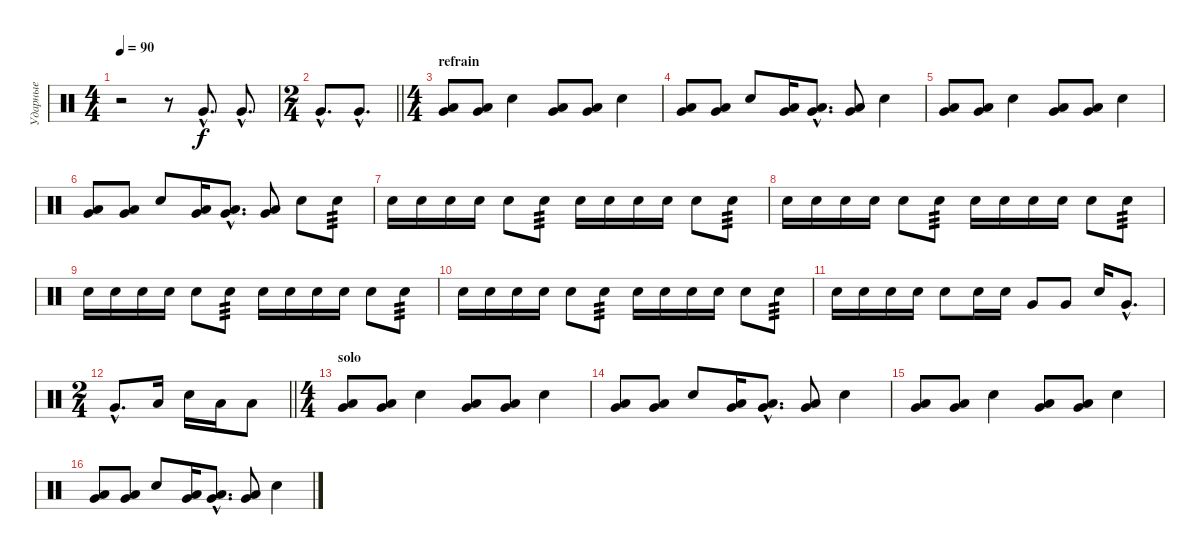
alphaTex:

\track ("Ударные" "Ударные") {instrument percussion}
\staff {score}
\articulation defaults
\ts (4 4)
\tempo 90
\clef neutral
\ks c
r.2{dy f} r.8 "Very Low Tom (hit)"{hac}.8{d} "Very Low Tom (hit)"{hac}.8{d} |
\ts (2 4)
\barLineRight lightlight "Very Low Tom (hit)"{hac}.8{d} "Very Low Tom (hit)"{hac}.8{d}
|
\ts (4 4)
\section ("" "refrain")
("Low Floor Tom (hit)" "Very Low Tom (hit)").8 ("Low Floor Tom (hit)" "Very Low Tom (hit)").8 "Snare (hit) 2".4 ("Low Floor Tom (hit)" "Very Low Tom (hit)").8 ("Low Floor Tom (hit)" "Very Low Tom (hit)").8 "Snare (hit) 2".4 |
("Low Floor Tom (hit)" "Very Low Tom (hit)").8 ("Low Floor Tom (hit)" "Very Low Tom (hit)").8 "Snare (hit) 2".8 ("Low Floor Tom (hit)" "Very Low Tom (hit)").16 ("Low Floor Tom (hit)"{hac} "Very Low Tom (hit)"{hac}).8{d} ("Low Floor Tom (hit)" "Very Low Tom (hit)").8 "Snare (hit) 2".4 |
("Low Floor Tom (hit)" "Very Low Tom (hit)").8 ("Low Floor Tom (hit)" "Very Low Tom (hit)").8 "Snare (hit) 2".4 ("Low Floor Tom (hit)" "Very Low Tom (hit)").8 ("Low Floor Tom (hit)" "Very Low Tom (hit)").8 "Snare (hit) 2".4 |
("Low Floor Tom (hit)" "Very Low Tom (hit)").8 ("Low Floor Tom (hit)" "Very Low Tom (hit)").8 "Snare (hit) 2".8 ("Low Floor Tom (hit)" "Very Low Tom (hit)").16 ("Low Floor Tom (hit)"{hac} "Very Low Tom (hit)"{hac}).8{d} ("Low Floor Tom (hit)" "Very Low Tom (hit)").8 "Snare (hit) 2".8 "Snare (hit) 2".8{tp 3} |
"Snare (hit) 2".16 "Snare (hit) 2".16 "Snare (hit) 2".16 "Snare (hit) 2".16 "Snare (hit) 2".8 "Snare (hit) 2".8{tp 3} "Snare (hit) 2".16 "Snare (hit) 2".16 "Snare (hit) 2".16 "Snare (hit) 2".16 "Snare (hit) 2".8 "Snare (hit) 2".8{tp 3} |
"Snare (hit) 2".16 "Snare (hit) 2".16 "Snare (hit) 2".16 "Snare (hit) 2".16 "Snare (hit) 2".8 "Snare (hit) 2".8{tp 3} "Snare (hit) 2".16 "Snare (hit) 2".16 "Snare (hit) 2".16 "Snare (hit) 2".16 "Snare (hit) 2".8 "Snare (hit) 2".8{tp 3} |
"Snare (hit) 2".16 "Snare (hit) 2".16 "Snare (hit) 2".16 "Snare (hit) 2".16 "Snare (hit) 2".8 "Snare (hit) 2".8{tp 3} "Snare (hit) 2".16 "Snare (hit) 2".16 "Snare (hit) 2".16 "Snare (hit) 2".16 "Snare (hit) 2".8 "Snare (hit) 2".8{tp 3} |
"Snare (hit) 2".16 "Snare (hit) 2".16 "Snare (hit) 2".16 "Snare (hit) 2".16 "Snare (hit) 2".8 "Snare (hit) 2".8{tp 3} "Snare (hit) 2".16 "Snare (hit) 2".16 "Snare (hit) 2".16 "Snare (hit) 2".16 "Snare (hit) 2".8 "Snare (hit) 2".8{tp 3} |
"Snare (hit) 2".16 "Snare (hit) 2".16 "Snare (hit) 2".16 "Snare (hit) 2".16 "Snare (hit) 2".8 "Snare (hit) 2".16 "Snare (hit) 2".16 "Very Low Tom (hit)".8 "Very Low Tom (hit)".8 "Snare (hit) 2".16 "Very Low Tom (hit)"{hac}.8{d} |
\ts (2 4)
\barLineRight lightlight "Very Low Tom (hit)"{hac}.8{d} "Low Floor Tom (hit)".16 "Snare (hit) 2".16 "Low Floor Tom (hit)".16 "Low Floor Tom (hit)".8
|
\ts (4 4)
\section ("" "solo")
("Low Floor Tom (hit)" "Very Low Tom (hit)").8 ("Low Floor Tom (hit)" "Very Low Tom (hit)").8 "Snare (hit) 2".4 ("Low Floor Tom (hit)" "Very Low Tom (hit)").8 ("Low Floor Tom (hit)" "Very Low Tom (hit)").8 "Snare (hit) 2".4 |
("Low Floor Tom (hit)" "Very Low Tom (hit)").8 ("Low Floor Tom (hit)" "Very Low Tom (hit)").8 "Snare (hit) 2".8 ("Low Floor Tom (hit)" "Very Low Tom (hit)").16 ("Low Floor Tom (hit)"{hac} "Very Low Tom (hit)"{hac}).8{d} ("Low Floor Tom (hit)" "Very Low Tom (hit)").8 "Snare (hit) 2".4 |
("Low Floor Tom (hit)" "Very Low Tom (hit)").8 ("Low Floor Tom (hit)" "Very Low Tom (hit)").8 "Snare (hit) 2".4 ("Low Floor Tom (hit)" "Very Low Tom (hit)").8 ("Low Floor Tom (hit)" "Very Low Tom (hit)").8 "Snare (hit) 2".4 |
("Low Floor Tom (hit)" "Very Low Tom (hit)").8 ("Low Floor Tom (hit)" "Very Low Tom (hit)").8 "Snare (hit) 2".8 ("Low Floor Tom (hit)" "Very Low Tom (hit)").16 ("Low Floor Tom (hit)"{hac} "Very Low Tom (hit)"{hac}).8{d} ("Low Floor Tom (hit)" "Very Low Tom (hit)").8 "Snare (hit) 2".4
